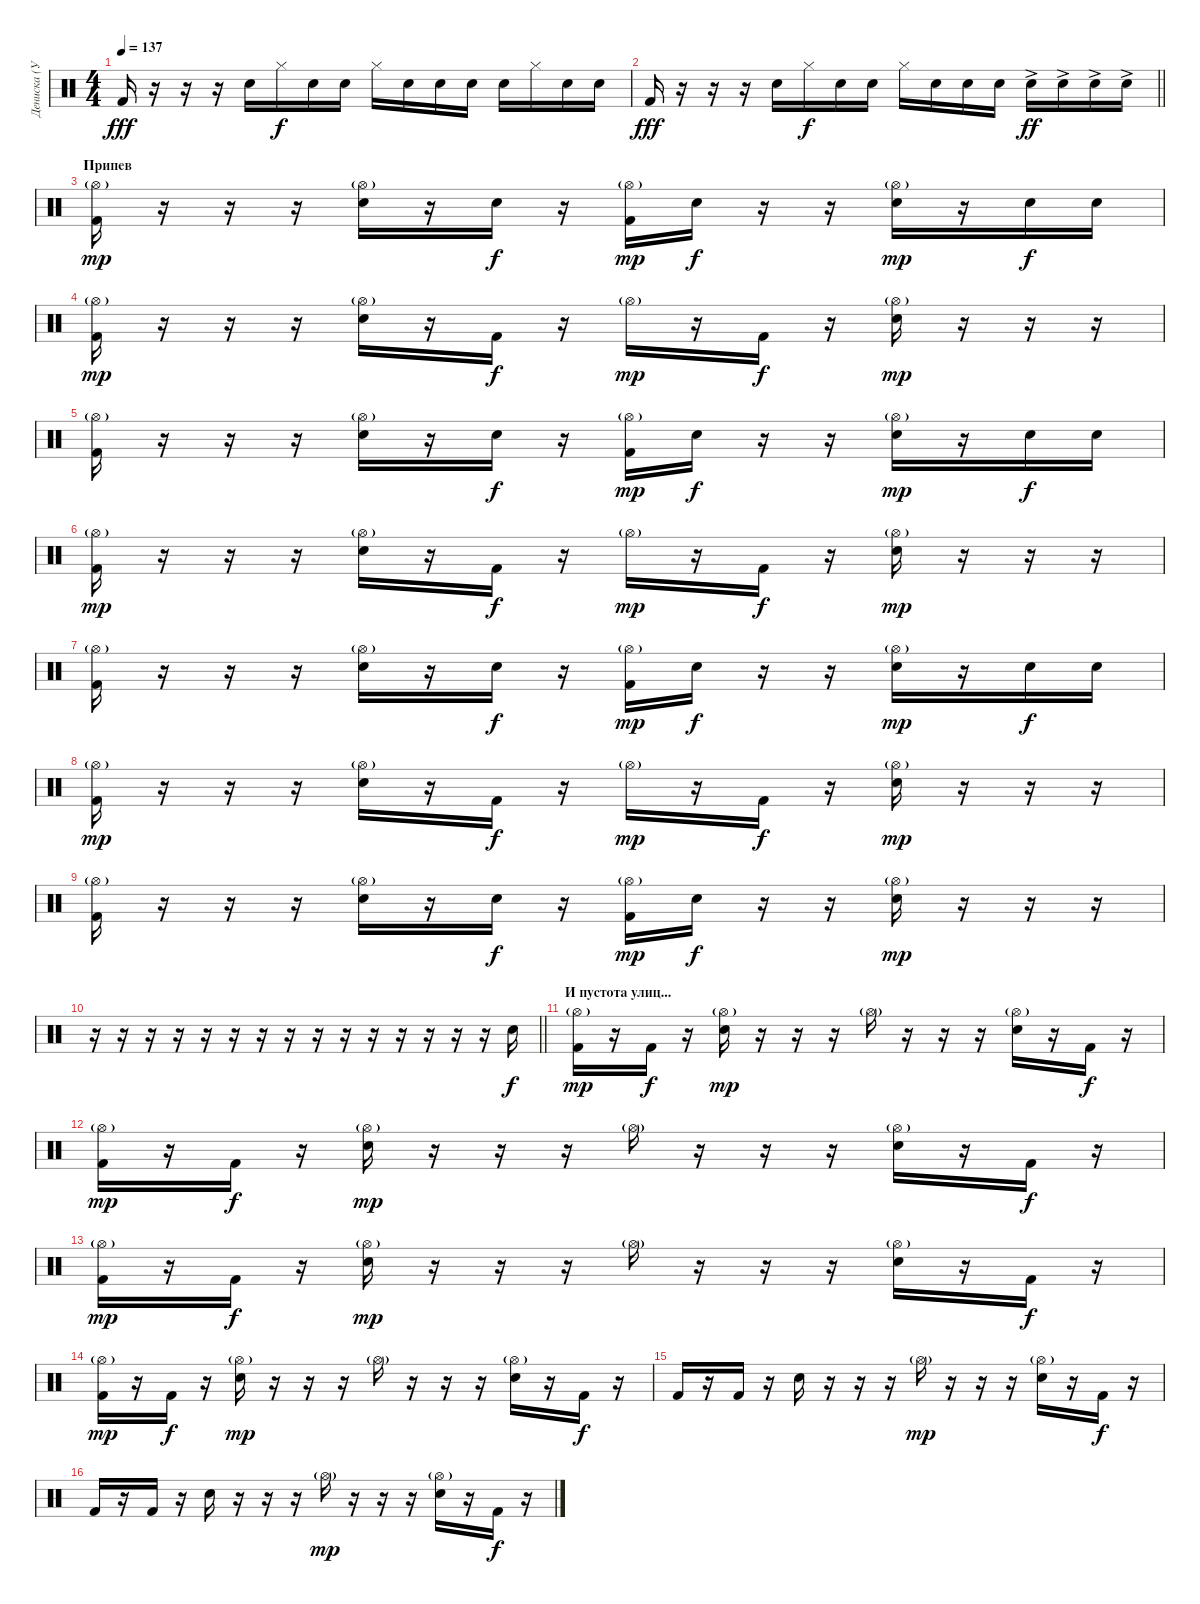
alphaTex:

\track ("Дениска (Ударник)" "Дениска (У") {instrument percussion}
\staff
\articulation defaults
\ts (4 4)
\tempo 137
\clef neutral
\ks c "Kick (hit) 2".16{dy fff}
r.16 r.16 r.16 "Snare (hit) 2".16 "Hi-Hat (closed)".16{dy f} "Snare (hit) 2".16 "Snare (hit) 2".16 "Hi-Hat (closed)".16 "Snare (hit) 2".16 "Snare (hit) 2".16 "Snare (hit) 2".16 "Snare (hit) 2".16 "Hi-Hat (closed)".16 "Snare (hit) 2".16 "Snare (hit) 2".16 |
\barLineRight lightlight "Kick (hit) 2".16{dy fff}
r.16 r.16 r.16 "Snare (hit) 2".16 "Hi-Hat (closed)".16{dy f} "Snare (hit) 2".16 "Snare (hit) 2".16 "Hi-Hat (closed)".16 "Snare (hit) 2".16 "Snare (hit) 2".16 "Snare (hit) 2".16 "Snare (hit) 2"{ac}.16{dy ff} "Snare (hit) 2"{ac}.16 "Snare (hit) 2"{ac}.16 "Snare (hit) 2"{ac}.16 |
\section ("" "Припев")
("Kick (hit) 2" "Hi-Hat (open)"{g}).16{dy mp} r.16 r.16 r.16 ("Snare (hit) 2" "Hi-Hat (open)"{g}).16 r.16 "Snare (hit) 2".16{dy f} r.16 ("Kick (hit) 2" "Hi-Hat (open)"{g}).16{dy mp} "Snare (hit) 2".16{dy f} r.16 r.16 ("Snare (hit) 2" "Hi-Hat (open)"{g}).16{dy mp} r.16 "Snare (hit) 2".16{dy f} "Snare (hit) 2".16 |
("Kick (hit) 2" "Hi-Hat (open)"{g}).16{dy mp} r.16 r.16 r.16 ("Snare (hit) 2" "Hi-Hat (open)"{g}).16 r.16 "Kick (hit) 2".16{dy f} r.16 "Hi-Hat (open)"{g}.16{dy mp} r.16 "Kick (hit) 2".16{dy f} r.16 ("Snare (hit) 2" "Hi-Hat (open)"{g}).16{dy mp} r.16 r.16 r.16 |
("Kick (hit) 2" "Hi-Hat (open)"{g}).16 r.16 r.16 r.16 ("Snare (hit) 2" "Hi-Hat (open)"{g}).16 r.16 "Snare (hit) 2".16{dy f} r.16 ("Kick (hit) 2" "Hi-Hat (open)"{g}).16{dy mp} "Snare (hit) 2".16{dy f} r.16 r.16 ("Snare (hit) 2" "Hi-Hat (open)"{g}).16{dy mp} r.16 "Snare (hit) 2".16{dy f} "Snare (hit) 2".16 |
("Kick (hit) 2" "Hi-Hat (open)"{g}).16{dy mp} r.16 r.16 r.16 ("Snare (hit) 2" "Hi-Hat (open)"{g}).16 r.16 "Kick (hit) 2".16{dy f} r.16 "Hi-Hat (open)"{g}.16{dy mp} r.16 "Kick (hit) 2".16{dy f} r.16 ("Snare (hit) 2" "Hi-Hat (open)"{g}).16{dy mp} r.16 r.16 r.16 |
("Kick (hit) 2" "Hi-Hat (open)"{g}).16 r.16 r.16 r.16 ("Snare (hit) 2" "Hi-Hat (open)"{g}).16 r.16 "Snare (hit) 2".16{dy f} r.16 ("Kick (hit) 2" "Hi-Hat (open)"{g}).16{dy mp} "Snare (hit) 2".16{dy f} r.16 r.16 ("Snare (hit) 2" "Hi-Hat (open)"{g}).16{dy mp} r.16 "Snare (hit) 2".16{dy f} "Snare (hit) 2".16 |
("Kick (hit) 2" "Hi-Hat (open)"{g}).16{dy mp} r.16 r.16 r.16 ("Snare (hit) 2" "Hi-Hat (open)"{g}).16 r.16 "Kick (hit) 2".16{dy f} r.16 "Hi-Hat (open)"{g}.16{dy mp} r.16 "Kick (hit) 2".16{dy f} r.16 ("Snare (hit) 2" "Hi-Hat (open)"{g}).16{dy mp} r.16 r.16 r.16 |
("Kick (hit) 2" "Hi-Hat (open)"{g}).16 r.16 r.16 r.16 ("Snare (hit) 2" "Hi-Hat (open)"{g}).16 r.16 "Snare (hit) 2".16{dy f} r.16 ("Kick (hit) 2" "Hi-Hat (open)"{g}).16{dy mp} "Snare (hit) 2".16{dy f} r.16 r.16 ("Snare (hit) 2" "Hi-Hat (open)"{g}).16{dy mp} r.16 r.16 r.16 |
\barLineRight lightlight
r.16 r.16 r.16 r.16 r.16 r.16 r.16 r.16 r.16 r.16 r.16 r.16 r.16 r.16 r.16 "Snare (hit) 2".16{dy f} |
\section ("" "И пустота улиц...")
("Kick (hit) 2" "Hi-Hat (open)"{g}).16{dy mp} r.16 "Kick (hit) 2".16{dy f} r.16 ("Snare (hit) 2" "Hi-Hat (open)"{g}).16{dy mp} r.16 r.16 r.16 "Hi-Hat (open)"{g}.16 r.16 r.16 r.16 ("Snare (hit) 2" "Hi-Hat (open)"{g}).16 r.16 "Kick (hit) 2".16{dy f} r.16 |
("Kick (hit) 2" "Hi-Hat (open)"{g}).16{dy mp} r.16 "Kick (hit) 2".16{dy f} r.16 ("Snare (hit) 2" "Hi-Hat (open)"{g}).16{dy mp} r.16 r.16 r.16 "Hi-Hat (open)"{g}.16 r.16 r.16 r.16 ("Snare (hit) 2" "Hi-Hat (open)"{g}).16 r.16 "Kick (hit) 2".16{dy f} r.16 |
("Kick (hit) 2" "Hi-Hat (open)"{g}).16{dy mp} r.16 "Kick (hit) 2".16{dy f} r.16 ("Snare (hit) 2" "Hi-Hat (open)"{g}).16{dy mp} r.16 r.16 r.16 "Hi-Hat (open)"{g}.16 r.16 r.16 r.16 ("Snare (hit) 2" "Hi-Hat (open)"{g}).16 r.16 "Kick (hit) 2".16{dy f} r.16 |
("Kick (hit) 2" "Hi-Hat (open)"{g}).16{dy mp} r.16 "Kick (hit) 2".16{dy f} r.16 ("Snare (hit) 2" "Hi-Hat (open)"{g}).16{dy mp} r.16 r.16 r.16 "Hi-Hat (open)"{g}.16 r.16 r.16 r.16 ("Snare (hit) 2" "Hi-Hat (open)"{g}).16 r.16 "Kick (hit) 2".16{dy f} r.16 |
"Kick (hit) 2".16 r.16 "Kick (hit) 2".16 r.16 "Snare (hit) 2".16 r.16 r.16 r.16 "Hi-Hat (open)"{g}.16{dy mp} r.16 r.16 r.16 ("Snare (hit) 2" "Hi-Hat (open)"{g}).16 r.16 "Kick (hit) 2".16{dy f} r.16 |
"Kick (hit) 2".16 r.16 "Kick (hit) 2".16 r.16 "Snare (hit) 2".16 r.16 r.16 r.16 "Hi-Hat (open)"{g}.16{dy mp} r.16 r.16 r.16 ("Snare (hit) 2" "Hi-Hat (open)"{g}).16 r.16 "Kick (hit) 2".16{dy f} r.16
